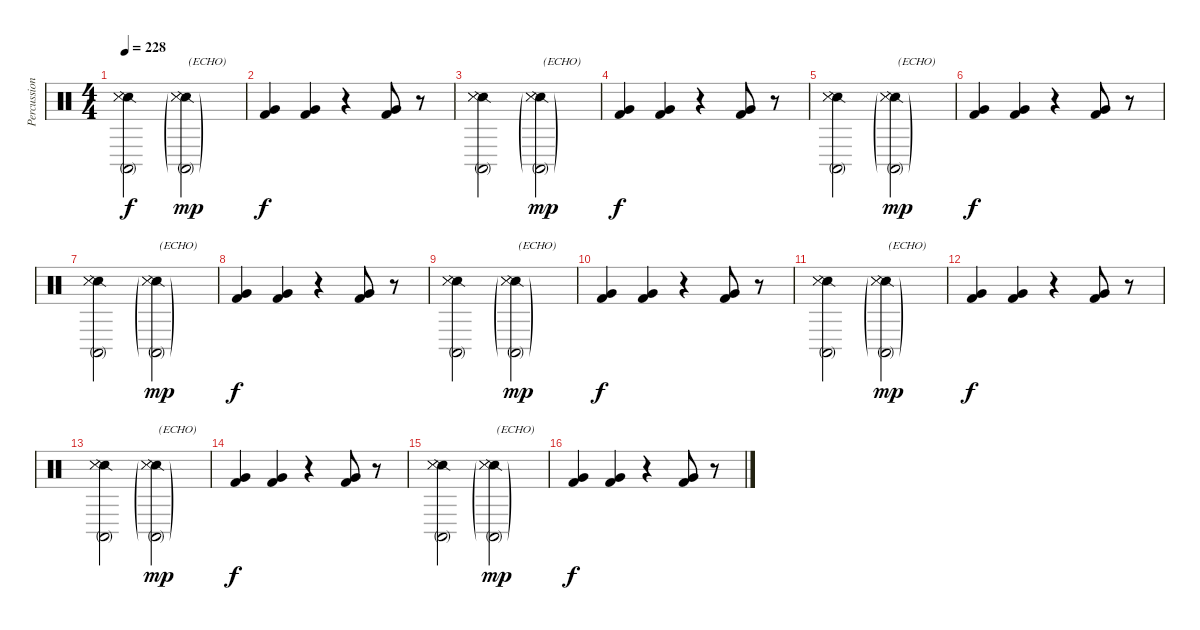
\track ("Percussions" "Percussion") {instrument percussion}
\staff {score}
\articulation defaults
\ts (4 4)
\tempo 228
\clef neutral
\ks c
("Snare (side stick) 2" "Snare (side stick) 3" "Conga high (mute)" "Metronome (hit)").2{dy f} ("Snare (side stick) 2"{g} "Snare (side stick) 3"{g} "Conga high (mute)"{g} "Metronome (hit)"{g}).2{txt "(ECHO)" dy mp} |
("Kick (hit) 2" "Very Low Tom (hit)").4{dy f} ("Kick (hit) 2" "Very Low Tom (hit)").4 r.4 ("Kick (hit) 2" "Very Low Tom (hit)").8 r.8 |
("Snare (side stick) 2" "Snare (side stick) 3" "Conga high (mute)" "Metronome (hit)").2 ("Snare (side stick) 2"{g} "Snare (side stick) 3"{g} "Conga high (mute)"{g} "Metronome (hit)"{g}).2{txt "(ECHO)" dy mp} |
("Kick (hit) 2" "Very Low Tom (hit)").4{dy f} ("Kick (hit) 2" "Very Low Tom (hit)").4 r.4 ("Kick (hit) 2" "Very Low Tom (hit)").8 r.8 |
("Snare (side stick) 2" "Snare (side stick) 3" "Conga high (mute)" "Metronome (hit)").2 ("Snare (side stick) 2"{g} "Snare (side stick) 3"{g} "Conga high (mute)"{g} "Metronome (hit)"{g}).2{txt "(ECHO)" dy mp} |
("Kick (hit) 2" "Very Low Tom (hit)").4{dy f} ("Kick (hit) 2" "Very Low Tom (hit)").4 r.4 ("Kick (hit) 2" "Very Low Tom (hit)").8 r.8 |
("Snare (side stick) 2" "Snare (side stick) 3" "Conga high (mute)" "Metronome (hit)").2 ("Snare (side stick) 2"{g} "Snare (side stick) 3"{g} "Conga high (mute)"{g} "Metronome (hit)"{g}).2{txt "(ECHO)" dy mp} |
("Kick (hit) 2" "Very Low Tom (hit)").4{dy f} ("Kick (hit) 2" "Very Low Tom (hit)").4 r.4 ("Kick (hit) 2" "Very Low Tom (hit)").8 r.8 |
("Snare (side stick) 2" "Snare (side stick) 3" "Conga high (mute)" "Metronome (hit)").2 ("Snare (side stick) 2"{g} "Snare (side stick) 3"{g} "Conga high (mute)"{g} "Metronome (hit)"{g}).2{txt "(ECHO)" dy mp} |
("Kick (hit) 2" "Very Low Tom (hit)").4{dy f} ("Kick (hit) 2" "Very Low Tom (hit)").4 r.4 ("Kick (hit) 2" "Very Low Tom (hit)").8 r.8 |
("Snare (side stick) 2" "Snare (side stick) 3" "Conga high (mute)" "Metronome (hit)").2 ("Snare (side stick) 2"{g} "Snare (side stick) 3"{g} "Conga high (mute)"{g} "Metronome (hit)"{g}).2{txt "(ECHO)" dy mp} |
("Kick (hit) 2" "Very Low Tom (hit)").4{dy f} ("Kick (hit) 2" "Very Low Tom (hit)").4 r.4 ("Kick (hit) 2" "Very Low Tom (hit)").8 r.8 |
("Snare (side stick) 2" "Snare (side stick) 3" "Conga high (mute)" "Metronome (hit)").2 ("Snare (side stick) 2"{g} "Snare (side stick) 3"{g} "Conga high (mute)"{g} "Metronome (hit)"{g}).2{txt "(ECHO)" dy mp} |
("Kick (hit) 2" "Very Low Tom (hit)").4{dy f} ("Kick (hit) 2" "Very Low Tom (hit)").4 r.4 ("Kick (hit) 2" "Very Low Tom (hit)").8 r.8 |
("Snare (side stick) 2" "Snare (side stick) 3" "Conga high (mute)" "Metronome (hit)").2 ("Snare (side stick) 2"{g} "Snare (side stick) 3"{g} "Conga high (mute)"{g} "Metronome (hit)"{g}).2{txt "(ECHO)" dy mp} |
("Kick (hit) 2" "Very Low Tom (hit)").4{dy f} ("Kick (hit) 2" "Very Low Tom (hit)").4 r.4 ("Kick (hit) 2" "Very Low Tom (hit)").8 r.8
